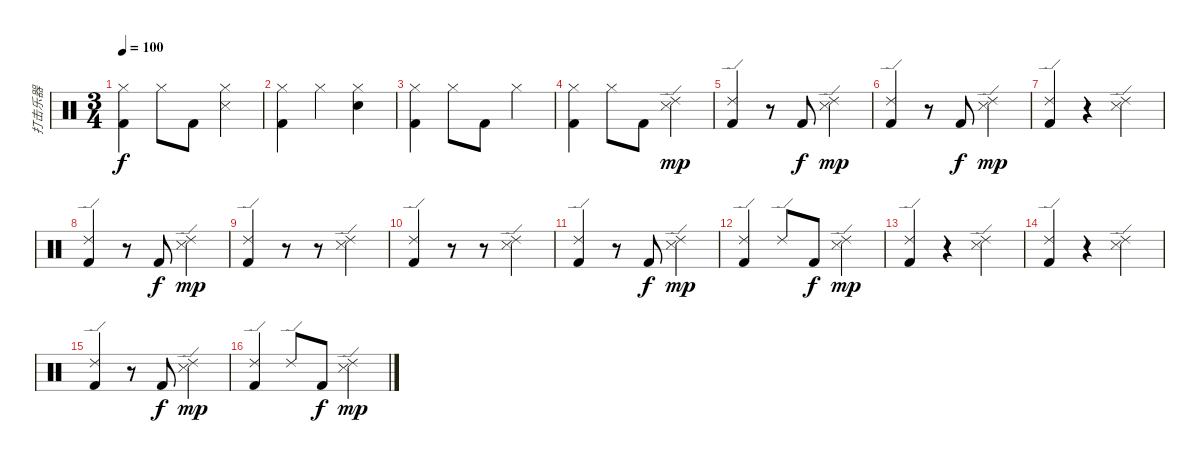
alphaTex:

\track ("打击乐器" "打击乐器") {instrument percussion}
\staff {score}
\articulation defaults
\ts (3 4)
\tempo 100
\clef neutral
\ks c
("Hi-Hat (closed)" "Kick (hit) 2").4{dy f} "Hi-Hat (closed)".8 "Kick (hit) 2".8 ("Hi-Hat (closed)" "Snare (side stick) 3").4 |
("Hi-Hat (closed)" "Kick (hit) 2").4 "Hi-Hat (closed)".4 ("Hi-Hat (closed)" "Electric Snare (hit)").4 |
("Hi-Hat (closed)" "Kick (hit) 2").4 "Hi-Hat (closed)".8 "Kick (hit) 2".8 "Hi-Hat (closed)".4 |
("Hi-Hat (closed)" "Kick (hit) 2").4 "Hi-Hat (closed)".8 "Kick (hit) 2".8 ("Ride (edge) 2" "Snare (side stick) 3").4{dy mp} |
("Ride (edge) 2" "Kick (hit) 2").4 r.8 "Kick (hit) 2".8{dy f} ("Ride (edge) 2" "Snare (side stick) 3").4{dy mp} |
("Ride (edge) 2" "Kick (hit) 2").4 r.8 "Kick (hit) 2".8{dy f} ("Ride (edge) 2" "Snare (side stick) 3").4{dy mp} |
("Ride (edge) 2" "Kick (hit) 2").4 r.4 ("Ride (edge) 2" "Snare (side stick) 3").4 |
("Ride (edge) 2" "Kick (hit) 2").4 r.8 "Kick (hit) 2".8{dy f} ("Ride (edge) 2" "Snare (side stick) 3").4{dy mp} |
("Ride (edge) 2" "Kick (hit) 2").4 r.8 r.8 ("Ride (edge) 2" "Snare (side stick) 3").4 |
("Ride (edge) 2" "Kick (hit) 2").4 r.8 r.8 ("Ride (edge) 2" "Snare (side stick) 3").4 |
("Ride (edge) 2" "Kick (hit) 2").4 r.8 "Kick (hit) 2".8{dy f} ("Ride (edge) 2" "Snare (side stick) 3").4{dy mp} |
("Ride (edge) 2" "Kick (hit) 2").4 "Ride (edge) 2".8 "Kick (hit) 2".8{dy f} ("Ride (edge) 2" "Snare (side stick) 3").4{dy mp} |
("Ride (edge) 2" "Kick (hit) 2").4 r.4 ("Ride (edge) 2" "Snare (side stick) 3").4 |
("Ride (edge) 2" "Kick (hit) 2").4 r.4 ("Ride (edge) 2" "Snare (side stick) 3").4 |
("Ride (edge) 2" "Kick (hit) 2").4 r.8 "Kick (hit) 2".8{dy f} ("Ride (edge) 2" "Snare (side stick) 3").4{dy mp} |
("Ride (edge) 2" "Kick (hit) 2").4 "Ride (edge) 2".8 "Kick (hit) 2".8{dy f} ("Ride (edge) 2" "Snare (side stick) 3").4{dy mp}
